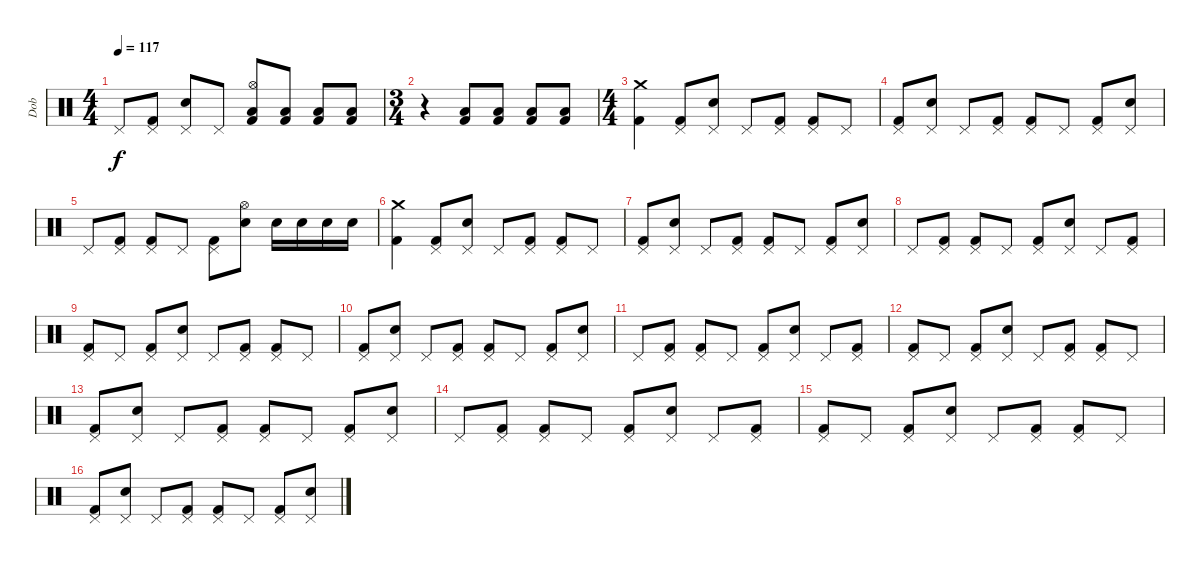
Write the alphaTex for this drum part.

\track ("Dob" "Dob") {instrument percussion}
\staff
\articulation defaults
\ts (4 4)
\tempo 117
\clef neutral
\ks c "Pedal Hi-Hat (hit)".8{dy f}
("Pedal Hi-Hat (hit)" "Kick (hit) 2").8 ("Pedal Hi-Hat (hit)" "Snare (hit) 2").8 "Pedal Hi-Hat (hit)".8 ("Hi-Hat (open)" "Low Floor Tom (hit)" "Kick (hit) 2").8 ("Low Floor Tom (hit)" "Kick (hit) 2").8 ("Low Floor Tom (hit)" "Kick (hit) 2").8 ("Low Floor Tom (hit)" "Kick (hit) 2").8 |
\ts (3 4)
r.4 ("Low Floor Tom (hit)" "Kick (hit) 2").8 ("Low Floor Tom (hit)" "Kick (hit) 2").8 ("Low Floor Tom (hit)" "Kick (hit) 2").8 ("Low Floor Tom (hit)" "Kick (hit) 2").8 |
\ts (4 4)
("Crash medium (hit)" "Kick (hit) 2").4 ("Pedal Hi-Hat (hit)" "Kick (hit) 2").8 ("Pedal Hi-Hat (hit)" "Snare (hit) 2").8 "Pedal Hi-Hat (hit)".8 ("Pedal Hi-Hat (hit)" "Kick (hit) 2").8 ("Pedal Hi-Hat (hit)" "Kick (hit) 2").8 "Pedal Hi-Hat (hit)".8 |
("Pedal Hi-Hat (hit)" "Kick (hit) 2").8 ("Pedal Hi-Hat (hit)" "Snare (hit) 2").8 "Pedal Hi-Hat (hit)".8 ("Pedal Hi-Hat (hit)" "Kick (hit) 2").8 ("Pedal Hi-Hat (hit)" "Kick (hit) 2").8 "Pedal Hi-Hat (hit)".8 ("Pedal Hi-Hat (hit)" "Kick (hit) 2").8 ("Pedal Hi-Hat (hit)" "Snare (hit) 2").8 |
"Pedal Hi-Hat (hit)".8 ("Pedal Hi-Hat (hit)" "Kick (hit) 2").8 ("Pedal Hi-Hat (hit)" "Kick (hit) 2").8 "Pedal Hi-Hat (hit)".8 ("Pedal Hi-Hat (hit)" "Kick (hit) 2").8 ("Hi-Hat (open)" "Snare (hit) 2").8 "Snare (hit) 2".16 "Snare (hit) 2".16 "Snare (hit) 2".16 "Snare (hit) 2".16 |
("Crash medium (hit)" "Kick (hit) 2").4 ("Pedal Hi-Hat (hit)" "Kick (hit) 2").8 ("Pedal Hi-Hat (hit)" "Snare (hit) 2").8 "Pedal Hi-Hat (hit)".8 ("Pedal Hi-Hat (hit)" "Kick (hit) 2").8 ("Pedal Hi-Hat (hit)" "Kick (hit) 2").8 "Pedal Hi-Hat (hit)".8 |
("Pedal Hi-Hat (hit)" "Kick (hit) 2").8 ("Pedal Hi-Hat (hit)" "Snare (hit) 2").8 "Pedal Hi-Hat (hit)".8 ("Pedal Hi-Hat (hit)" "Kick (hit) 2").8 ("Pedal Hi-Hat (hit)" "Kick (hit) 2").8 "Pedal Hi-Hat (hit)".8 ("Pedal Hi-Hat (hit)" "Kick (hit) 2").8 ("Pedal Hi-Hat (hit)" "Snare (hit) 2").8 |
"Pedal Hi-Hat (hit)".8 ("Pedal Hi-Hat (hit)" "Kick (hit) 2").8 ("Pedal Hi-Hat (hit)" "Kick (hit) 2").8 "Pedal Hi-Hat (hit)".8 ("Pedal Hi-Hat (hit)" "Kick (hit) 2").8 ("Pedal Hi-Hat (hit)" "Snare (hit) 2").8 "Pedal Hi-Hat (hit)".8 ("Pedal Hi-Hat (hit)" "Kick (hit) 2").8 |
("Pedal Hi-Hat (hit)" "Kick (hit) 2").8 "Pedal Hi-Hat (hit)".8 ("Pedal Hi-Hat (hit)" "Kick (hit) 2").8 ("Pedal Hi-Hat (hit)" "Snare (hit) 2").8 "Pedal Hi-Hat (hit)".8 ("Pedal Hi-Hat (hit)" "Kick (hit) 2").8 ("Pedal Hi-Hat (hit)" "Kick (hit) 2").8 "Pedal Hi-Hat (hit)".8 |
("Pedal Hi-Hat (hit)" "Kick (hit) 2").8 ("Pedal Hi-Hat (hit)" "Snare (hit) 2").8 "Pedal Hi-Hat (hit)".8 ("Pedal Hi-Hat (hit)" "Kick (hit) 2").8 ("Pedal Hi-Hat (hit)" "Kick (hit) 2").8 "Pedal Hi-Hat (hit)".8 ("Pedal Hi-Hat (hit)" "Kick (hit) 2").8 ("Pedal Hi-Hat (hit)" "Snare (hit) 2").8 |
"Pedal Hi-Hat (hit)".8 ("Pedal Hi-Hat (hit)" "Kick (hit) 2").8 ("Pedal Hi-Hat (hit)" "Kick (hit) 2").8 "Pedal Hi-Hat (hit)".8 ("Pedal Hi-Hat (hit)" "Kick (hit) 2").8 ("Pedal Hi-Hat (hit)" "Snare (hit) 2").8 "Pedal Hi-Hat (hit)".8 ("Pedal Hi-Hat (hit)" "Kick (hit) 2").8 |
("Pedal Hi-Hat (hit)" "Kick (hit) 2").8 "Pedal Hi-Hat (hit)".8 ("Pedal Hi-Hat (hit)" "Kick (hit) 2").8 ("Pedal Hi-Hat (hit)" "Snare (hit) 2").8 "Pedal Hi-Hat (hit)".8 ("Pedal Hi-Hat (hit)" "Kick (hit) 2").8 ("Pedal Hi-Hat (hit)" "Kick (hit) 2").8 "Pedal Hi-Hat (hit)".8 |
("Pedal Hi-Hat (hit)" "Kick (hit) 2").8 ("Pedal Hi-Hat (hit)" "Snare (hit) 2").8 "Pedal Hi-Hat (hit)".8 ("Pedal Hi-Hat (hit)" "Kick (hit) 2").8 ("Pedal Hi-Hat (hit)" "Kick (hit) 2").8 "Pedal Hi-Hat (hit)".8 ("Pedal Hi-Hat (hit)" "Kick (hit) 2").8 ("Pedal Hi-Hat (hit)" "Snare (hit) 2").8 |
"Pedal Hi-Hat (hit)".8 ("Pedal Hi-Hat (hit)" "Kick (hit) 2").8 ("Pedal Hi-Hat (hit)" "Kick (hit) 2").8 "Pedal Hi-Hat (hit)".8 ("Pedal Hi-Hat (hit)" "Kick (hit) 2").8 ("Pedal Hi-Hat (hit)" "Snare (hit) 2").8 "Pedal Hi-Hat (hit)".8 ("Pedal Hi-Hat (hit)" "Kick (hit) 2").8 |
("Pedal Hi-Hat (hit)" "Kick (hit) 2").8 "Pedal Hi-Hat (hit)".8 ("Pedal Hi-Hat (hit)" "Kick (hit) 2").8 ("Pedal Hi-Hat (hit)" "Snare (hit) 2").8 "Pedal Hi-Hat (hit)".8 ("Pedal Hi-Hat (hit)" "Kick (hit) 2").8 ("Pedal Hi-Hat (hit)" "Kick (hit) 2").8 "Pedal Hi-Hat (hit)".8 |
("Pedal Hi-Hat (hit)" "Kick (hit) 2").8 ("Pedal Hi-Hat (hit)" "Snare (hit) 2").8 "Pedal Hi-Hat (hit)".8 ("Pedal Hi-Hat (hit)" "Kick (hit) 2").8 ("Pedal Hi-Hat (hit)" "Kick (hit) 2").8 "Pedal Hi-Hat (hit)".8 ("Pedal Hi-Hat (hit)" "Kick (hit) 2").8 ("Pedal Hi-Hat (hit)" "Snare (hit) 2").8
